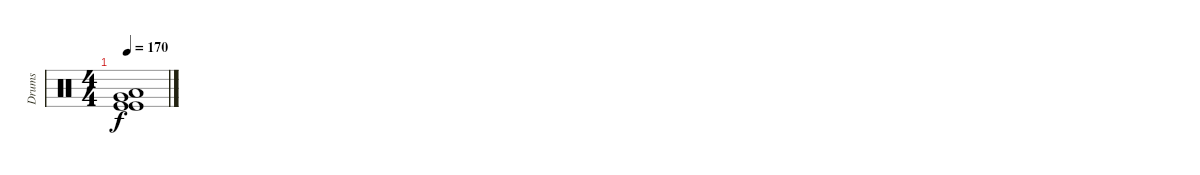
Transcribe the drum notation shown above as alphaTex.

\track ("Drums" "Drums") {instrument percussion}
\staff {score}
\articulation defaults
\ts (4 4)
\tempo 170
\clef neutral
\ks c
("Kick (hit)" "Low Floor Tom (hit)" "Very Low Tom (hit)" "Kick (hit)").1{dy f}
